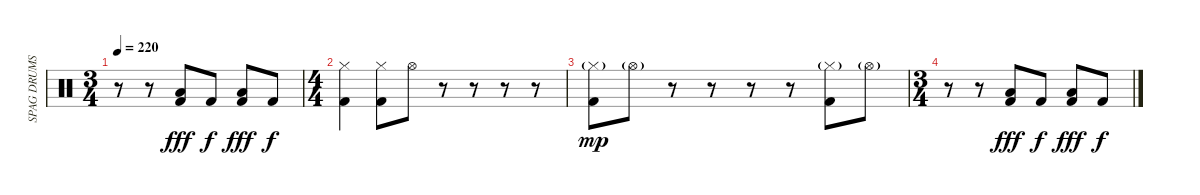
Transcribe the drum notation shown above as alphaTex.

\track ("SPAG DRUMS" "SPAG DRUMS") {instrument percussion}
\staff {score}
\articulation defaults
\ts (3 4)
\tempo 220
\clef neutral
\ks c
r.8{dy mp} r.8 ("Low Floor Tom (hit)" "Kick (hit) 2").8{dy fff} "Kick (hit) 2".8{dy f} ("Low Floor Tom (hit)" "Kick (hit) 2").8{dy fff} "Kick (hit) 2".8{dy f} |
\ts (4 4)
("Hi-Hat (closed)" "Kick (hit) 2").4 ("Hi-Hat (closed)" "Kick (hit) 2").8 "Hi-Hat (open)".8 r.8 r.8 r.8 r.8 |
("Kick (hit) 2" "Hi-Hat (closed)"{g}).8{dy mp} "Hi-Hat (open)"{g}.8 r.8 r.8 r.8 r.8 ("Kick (hit) 2" "Hi-Hat (closed)"{g}).8 "Hi-Hat (open)"{g}.8 |
\ts (3 4)
r.8 r.8 ("Low Floor Tom (hit)" "Kick (hit) 2").8{dy fff} "Kick (hit) 2".8{dy f} ("Low Floor Tom (hit)" "Kick (hit) 2").8{dy fff} "Kick (hit) 2".8{dy f}
